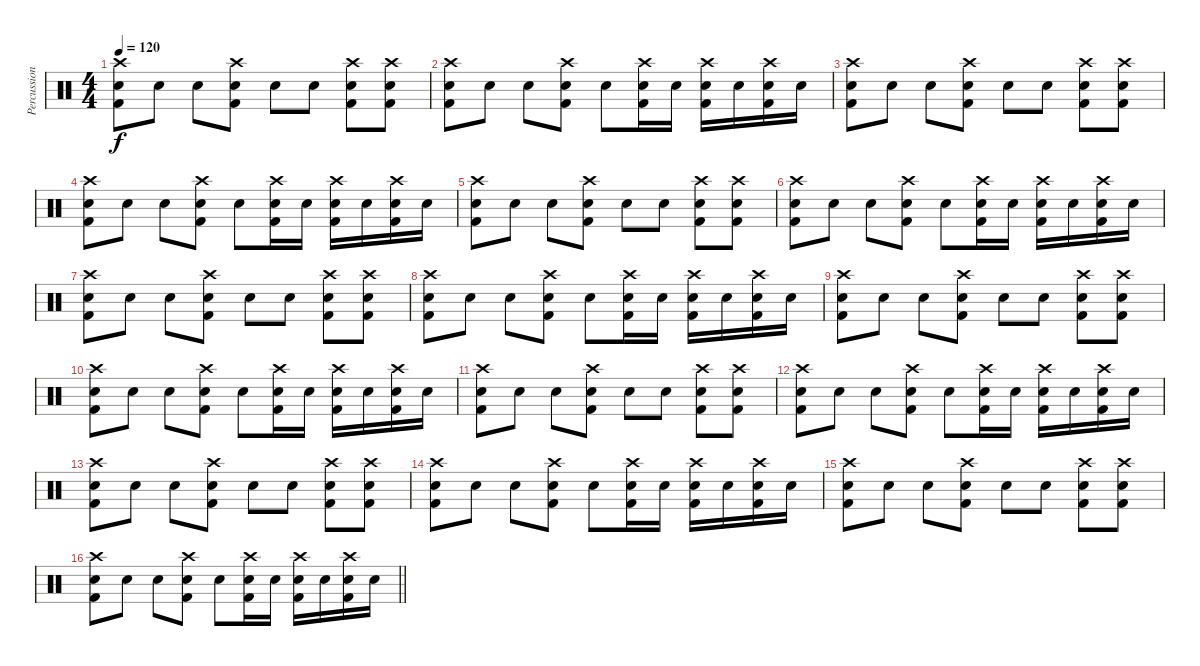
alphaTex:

\track ("Percussion" "Percussion") {instrument percussion}
\staff {score}
\articulation defaults
\ts (4 4)
\tempo 120
\clef neutral
\ks c
("Crash high (hit)" "Electric Snare (hit)" "Kick (hit) 2").8{dy f} "Electric Snare (hit)".8 "Electric Snare (hit)".8 ("Crash high (hit)" "Electric Snare (hit)" "Kick (hit) 2").8 "Electric Snare (hit)".8 "Electric Snare (hit)".8 ("Crash high (hit)" "Electric Snare (hit)" "Kick (hit) 2").8 ("Crash high (hit)" "Electric Snare (hit)" "Kick (hit) 2").8 |
("Crash high (hit)" "Electric Snare (hit)" "Kick (hit) 2").8 "Electric Snare (hit)".8 "Electric Snare (hit)".8 ("Crash high (hit)" "Electric Snare (hit)" "Kick (hit) 2").8 "Electric Snare (hit)".8 ("Crash high (hit)" "Electric Snare (hit)" "Kick (hit) 2").16 "Electric Snare (hit)".16 ("Crash high (hit)" "Electric Snare (hit)" "Kick (hit) 2").16 "Electric Snare (hit)".16 ("Crash high (hit)" "Electric Snare (hit)" "Kick (hit) 2").16 "Electric Snare (hit)".16 |
("Crash high (hit)" "Electric Snare (hit)" "Kick (hit) 2").8 "Electric Snare (hit)".8 "Electric Snare (hit)".8 ("Crash high (hit)" "Electric Snare (hit)" "Kick (hit) 2").8 "Electric Snare (hit)".8 "Electric Snare (hit)".8 ("Crash high (hit)" "Electric Snare (hit)" "Kick (hit) 2").8 ("Crash high (hit)" "Electric Snare (hit)" "Kick (hit) 2").8 |
("Crash high (hit)" "Electric Snare (hit)" "Kick (hit) 2").8 "Electric Snare (hit)".8 "Electric Snare (hit)".8 ("Crash high (hit)" "Electric Snare (hit)" "Kick (hit) 2").8 "Electric Snare (hit)".8 ("Crash high (hit)" "Electric Snare (hit)" "Kick (hit) 2").16 "Electric Snare (hit)".16 ("Crash high (hit)" "Electric Snare (hit)" "Kick (hit) 2").16 "Electric Snare (hit)".16 ("Crash high (hit)" "Electric Snare (hit)" "Kick (hit) 2").16 "Electric Snare (hit)".16 |
("Crash high (hit)" "Electric Snare (hit)" "Kick (hit) 2").8 "Electric Snare (hit)".8 "Electric Snare (hit)".8 ("Crash high (hit)" "Electric Snare (hit)" "Kick (hit) 2").8 "Electric Snare (hit)".8 "Electric Snare (hit)".8 ("Crash high (hit)" "Electric Snare (hit)" "Kick (hit) 2").8 ("Crash high (hit)" "Electric Snare (hit)" "Kick (hit) 2").8 |
("Crash high (hit)" "Electric Snare (hit)" "Kick (hit) 2").8 "Electric Snare (hit)".8 "Electric Snare (hit)".8 ("Crash high (hit)" "Electric Snare (hit)" "Kick (hit) 2").8 "Electric Snare (hit)".8 ("Crash high (hit)" "Electric Snare (hit)" "Kick (hit) 2").16 "Electric Snare (hit)".16 ("Crash high (hit)" "Electric Snare (hit)" "Kick (hit) 2").16 "Electric Snare (hit)".16 ("Crash high (hit)" "Electric Snare (hit)" "Kick (hit) 2").16 "Electric Snare (hit)".16 |
("Crash high (hit)" "Electric Snare (hit)" "Kick (hit) 2").8 "Electric Snare (hit)".8 "Electric Snare (hit)".8 ("Crash high (hit)" "Electric Snare (hit)" "Kick (hit) 2").8 "Electric Snare (hit)".8 "Electric Snare (hit)".8 ("Crash high (hit)" "Electric Snare (hit)" "Kick (hit) 2").8 ("Crash high (hit)" "Electric Snare (hit)" "Kick (hit) 2").8 |
("Crash high (hit)" "Electric Snare (hit)" "Kick (hit) 2").8 "Electric Snare (hit)".8 "Electric Snare (hit)".8 ("Crash high (hit)" "Electric Snare (hit)" "Kick (hit) 2").8 "Electric Snare (hit)".8 ("Crash high (hit)" "Electric Snare (hit)" "Kick (hit) 2").16 "Electric Snare (hit)".16 ("Crash high (hit)" "Electric Snare (hit)" "Kick (hit) 2").16 "Electric Snare (hit)".16 ("Crash high (hit)" "Electric Snare (hit)" "Kick (hit) 2").16 "Electric Snare (hit)".16 |
("Crash high (hit)" "Electric Snare (hit)" "Kick (hit) 2").8 "Electric Snare (hit)".8 "Electric Snare (hit)".8 ("Crash high (hit)" "Electric Snare (hit)" "Kick (hit) 2").8 "Electric Snare (hit)".8 "Electric Snare (hit)".8 ("Crash high (hit)" "Electric Snare (hit)" "Kick (hit) 2").8 ("Crash high (hit)" "Electric Snare (hit)" "Kick (hit) 2").8 |
("Crash high (hit)" "Electric Snare (hit)" "Kick (hit) 2").8 "Electric Snare (hit)".8 "Electric Snare (hit)".8 ("Crash high (hit)" "Electric Snare (hit)" "Kick (hit) 2").8 "Electric Snare (hit)".8 ("Crash high (hit)" "Electric Snare (hit)" "Kick (hit) 2").16 "Electric Snare (hit)".16 ("Crash high (hit)" "Electric Snare (hit)" "Kick (hit) 2").16 "Electric Snare (hit)".16 ("Crash high (hit)" "Electric Snare (hit)" "Kick (hit) 2").16 "Electric Snare (hit)".16 |
("Crash high (hit)" "Electric Snare (hit)" "Kick (hit) 2").8 "Electric Snare (hit)".8 "Electric Snare (hit)".8 ("Crash high (hit)" "Electric Snare (hit)" "Kick (hit) 2").8 "Electric Snare (hit)".8 "Electric Snare (hit)".8 ("Crash high (hit)" "Electric Snare (hit)" "Kick (hit) 2").8 ("Crash high (hit)" "Electric Snare (hit)" "Kick (hit) 2").8 |
("Crash high (hit)" "Electric Snare (hit)" "Kick (hit) 2").8 "Electric Snare (hit)".8 "Electric Snare (hit)".8 ("Crash high (hit)" "Electric Snare (hit)" "Kick (hit) 2").8 "Electric Snare (hit)".8 ("Crash high (hit)" "Electric Snare (hit)" "Kick (hit) 2").16 "Electric Snare (hit)".16 ("Crash high (hit)" "Electric Snare (hit)" "Kick (hit) 2").16 "Electric Snare (hit)".16 ("Crash high (hit)" "Electric Snare (hit)" "Kick (hit) 2").16 "Electric Snare (hit)".16 |
("Crash high (hit)" "Electric Snare (hit)" "Kick (hit) 2").8 "Electric Snare (hit)".8 "Electric Snare (hit)".8 ("Crash high (hit)" "Electric Snare (hit)" "Kick (hit) 2").8 "Electric Snare (hit)".8 "Electric Snare (hit)".8 ("Crash high (hit)" "Electric Snare (hit)" "Kick (hit) 2").8 ("Crash high (hit)" "Electric Snare (hit)" "Kick (hit) 2").8 |
("Crash high (hit)" "Electric Snare (hit)" "Kick (hit) 2").8 "Electric Snare (hit)".8 "Electric Snare (hit)".8 ("Crash high (hit)" "Electric Snare (hit)" "Kick (hit) 2").8 "Electric Snare (hit)".8 ("Crash high (hit)" "Electric Snare (hit)" "Kick (hit) 2").16 "Electric Snare (hit)".16 ("Crash high (hit)" "Electric Snare (hit)" "Kick (hit) 2").16 "Electric Snare (hit)".16 ("Crash high (hit)" "Electric Snare (hit)" "Kick (hit) 2").16 "Electric Snare (hit)".16 |
("Crash high (hit)" "Electric Snare (hit)" "Kick (hit) 2").8 "Electric Snare (hit)".8 "Electric Snare (hit)".8 ("Crash high (hit)" "Electric Snare (hit)" "Kick (hit) 2").8 "Electric Snare (hit)".8 "Electric Snare (hit)".8 ("Crash high (hit)" "Electric Snare (hit)" "Kick (hit) 2").8 ("Crash high (hit)" "Electric Snare (hit)" "Kick (hit) 2").8 |
\barLineRight lightlight
("Crash high (hit)" "Electric Snare (hit)" "Kick (hit) 2").8 "Electric Snare (hit)".8 "Electric Snare (hit)".8 ("Crash high (hit)" "Electric Snare (hit)" "Kick (hit) 2").8 "Electric Snare (hit)".8 ("Crash high (hit)" "Electric Snare (hit)" "Kick (hit) 2").16 "Electric Snare (hit)".16 ("Crash high (hit)" "Electric Snare (hit)" "Kick (hit) 2").16 "Electric Snare (hit)".16 ("Crash high (hit)" "Electric Snare (hit)" "Kick (hit) 2").16 "Electric Snare (hit)".16
